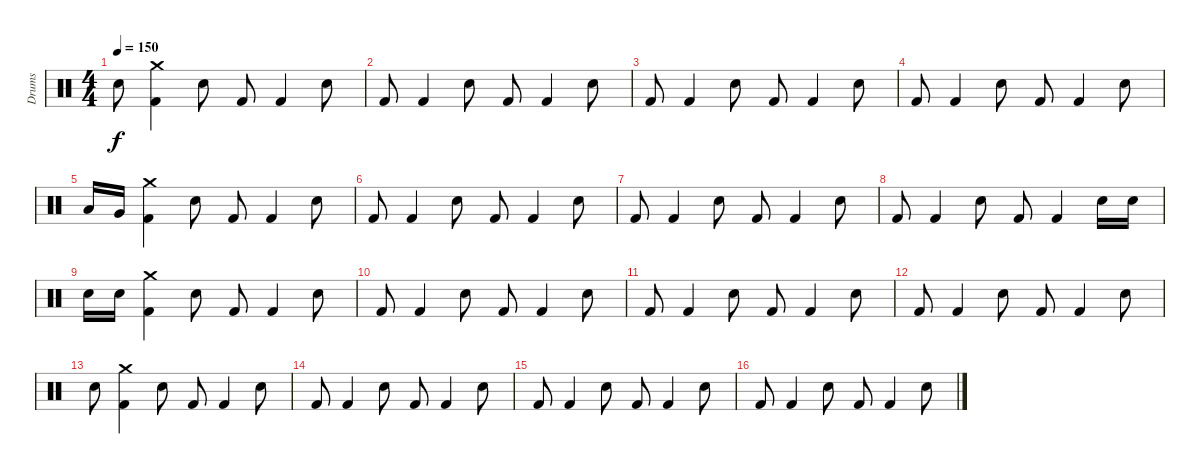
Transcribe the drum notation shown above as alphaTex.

\track ("Drums" "Drums") {instrument percussion}
\staff {score}
\articulation defaults
\ts (4 4)
\tempo 150
\clef neutral
\ks c "Snare (hit) 2".8{dy f}
("Crash medium (hit)" "Kick (hit) 2").4 "Snare (hit) 2".8 "Kick (hit) 2".8 "Kick (hit) 2".4 "Snare (hit) 2".8 |
"Kick (hit) 2".8 "Kick (hit) 2".4 "Snare (hit) 2".8 "Kick (hit) 2".8 "Kick (hit) 2".4 "Snare (hit) 2".8 |
"Kick (hit) 2".8 "Kick (hit) 2".4 "Snare (hit) 2".8 "Kick (hit) 2".8 "Kick (hit) 2".4 "Snare (hit) 2".8 |
"Kick (hit) 2".8 "Kick (hit) 2".4 "Snare (hit) 2".8 "Kick (hit) 2".8 "Kick (hit) 2".4 "Snare (hit) 2".8 |
"Low Tom (hit)".16 "Very Low Tom (hit)".16 ("Crash medium (hit)" "Kick (hit) 2").4 "Snare (hit) 2".8 "Kick (hit) 2".8 "Kick (hit) 2".4 "Snare (hit) 2".8 |
"Kick (hit) 2".8 "Kick (hit) 2".4 "Snare (hit) 2".8 "Kick (hit) 2".8 "Kick (hit) 2".4 "Snare (hit) 2".8 |
"Kick (hit) 2".8 "Kick (hit) 2".4 "Snare (hit) 2".8 "Kick (hit) 2".8 "Kick (hit) 2".4 "Snare (hit) 2".8 |
"Kick (hit) 2".8 "Kick (hit) 2".4 "Snare (hit) 2".8 "Kick (hit) 2".8 "Kick (hit) 2".4 "Snare (hit) 2".16 "Snare (hit) 2".16 |
"Snare (hit) 2".16 "Snare (hit) 2".16 ("Crash medium (hit)" "Kick (hit) 2").4 "Snare (hit) 2".8 "Kick (hit) 2".8 "Kick (hit) 2".4 "Snare (hit) 2".8 |
"Kick (hit) 2".8 "Kick (hit) 2".4 "Snare (hit) 2".8 "Kick (hit) 2".8 "Kick (hit) 2".4 "Snare (hit) 2".8 |
"Kick (hit) 2".8 "Kick (hit) 2".4 "Snare (hit) 2".8 "Kick (hit) 2".8 "Kick (hit) 2".4 "Snare (hit) 2".8 |
"Kick (hit) 2".8 "Kick (hit) 2".4 "Snare (hit) 2".8 "Kick (hit) 2".8 "Kick (hit) 2".4 "Snare (hit) 2".8 |
"Snare (hit) 2".8 ("Crash medium (hit)" "Kick (hit) 2").4 "Snare (hit) 2".8 "Kick (hit) 2".8 "Kick (hit) 2".4 "Snare (hit) 2".8 |
"Kick (hit) 2".8 "Kick (hit) 2".4 "Snare (hit) 2".8 "Kick (hit) 2".8 "Kick (hit) 2".4 "Snare (hit) 2".8 |
"Kick (hit) 2".8 "Kick (hit) 2".4 "Snare (hit) 2".8 "Kick (hit) 2".8 "Kick (hit) 2".4 "Snare (hit) 2".8 |
"Kick (hit) 2".8 "Kick (hit) 2".4 "Snare (hit) 2".8 "Kick (hit) 2".8 "Kick (hit) 2".4 "Snare (hit) 2".8
